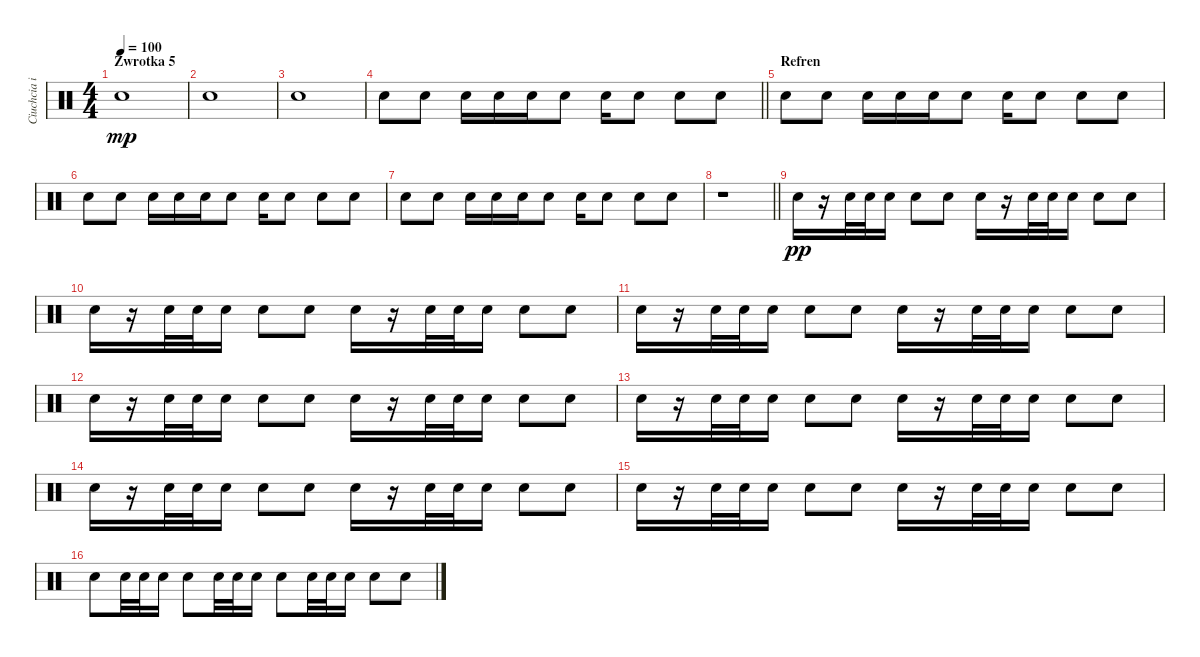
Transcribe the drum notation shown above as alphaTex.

\track ("Ciuchcia i Werbel" "Ciuchcia i") {instrument percussion}
\staff {score}
\articulation defaults
\ts (4 4)
\section ("" "Zwrotka 5")
\tempo 100
\clef neutral
\ks c "Snare (hit) 2".1{dy mp}
|
"Snare (hit) 2".1 |
"Snare (hit) 2".1 |
\barLineRight lightlight "Snare (hit) 2".8 "Snare (hit) 2".8 "Snare (hit) 2".16 "Snare (hit) 2".16 "Snare (hit) 2".16 "Snare (hit) 2".8 "Snare (hit) 2".16 "Snare (hit) 2".8 "Snare (hit) 2".8 "Snare (hit) 2".8
|
\section ("" "Refren")
"Snare (hit) 2".8 "Snare (hit) 2".8 "Snare (hit) 2".16 "Snare (hit) 2".16 "Snare (hit) 2".16 "Snare (hit) 2".8 "Snare (hit) 2".16 "Snare (hit) 2".8 "Snare (hit) 2".8 "Snare (hit) 2".8 |
"Snare (hit) 2".8 "Snare (hit) 2".8 "Snare (hit) 2".16 "Snare (hit) 2".16 "Snare (hit) 2".16 "Snare (hit) 2".8 "Snare (hit) 2".16 "Snare (hit) 2".8 "Snare (hit) 2".8 "Snare (hit) 2".8 |
"Snare (hit) 2".8 "Snare (hit) 2".8 "Snare (hit) 2".16 "Snare (hit) 2".16 "Snare (hit) 2".16 "Snare (hit) 2".8 "Snare (hit) 2".16 "Snare (hit) 2".8 "Snare (hit) 2".8 "Snare (hit) 2".8 |
\barLineRight lightlight
r.1 |
"Snare (hit) 2".16{dy pp} r.16 "Snare (hit) 2".32 "Snare (hit) 2".32 "Snare (hit) 2".16 "Snare (hit) 2".8 "Snare (hit) 2".8 "Snare (hit) 2".16 r.16 "Snare (hit) 2".32 "Snare (hit) 2".32 "Snare (hit) 2".16 "Snare (hit) 2".8 "Snare (hit) 2".8 |
"Snare (hit) 2".16 r.16 "Snare (hit) 2".32 "Snare (hit) 2".32 "Snare (hit) 2".16 "Snare (hit) 2".8 "Snare (hit) 2".8 "Snare (hit) 2".16 r.16 "Snare (hit) 2".32 "Snare (hit) 2".32 "Snare (hit) 2".16 "Snare (hit) 2".8 "Snare (hit) 2".8 |
"Snare (hit) 2".16 r.16 "Snare (hit) 2".32 "Snare (hit) 2".32 "Snare (hit) 2".16 "Snare (hit) 2".8 "Snare (hit) 2".8 "Snare (hit) 2".16 r.16 "Snare (hit) 2".32 "Snare (hit) 2".32 "Snare (hit) 2".16 "Snare (hit) 2".8 "Snare (hit) 2".8 |
"Snare (hit) 2".16 r.16 "Snare (hit) 2".32 "Snare (hit) 2".32 "Snare (hit) 2".16 "Snare (hit) 2".8 "Snare (hit) 2".8 "Snare (hit) 2".16 r.16 "Snare (hit) 2".32 "Snare (hit) 2".32 "Snare (hit) 2".16 "Snare (hit) 2".8 "Snare (hit) 2".8 |
"Snare (hit) 2".16 r.16 "Snare (hit) 2".32 "Snare (hit) 2".32 "Snare (hit) 2".16 "Snare (hit) 2".8 "Snare (hit) 2".8 "Snare (hit) 2".16 r.16 "Snare (hit) 2".32 "Snare (hit) 2".32 "Snare (hit) 2".16 "Snare (hit) 2".8 "Snare (hit) 2".8 |
"Snare (hit) 2".16 r.16 "Snare (hit) 2".32 "Snare (hit) 2".32 "Snare (hit) 2".16 "Snare (hit) 2".8 "Snare (hit) 2".8 "Snare (hit) 2".16 r.16 "Snare (hit) 2".32 "Snare (hit) 2".32 "Snare (hit) 2".16 "Snare (hit) 2".8 "Snare (hit) 2".8 |
"Snare (hit) 2".16 r.16 "Snare (hit) 2".32 "Snare (hit) 2".32 "Snare (hit) 2".16 "Snare (hit) 2".8 "Snare (hit) 2".8 "Snare (hit) 2".16 r.16 "Snare (hit) 2".32 "Snare (hit) 2".32 "Snare (hit) 2".16 "Snare (hit) 2".8 "Snare (hit) 2".8 |
"Snare (hit) 2".8 "Snare (hit) 2".32 "Snare (hit) 2".32 "Snare (hit) 2".16 "Snare (hit) 2".8 "Snare (hit) 2".32 "Snare (hit) 2".32 "Snare (hit) 2".16 "Snare (hit) 2".8 "Snare (hit) 2".32 "Snare (hit) 2".32 "Snare (hit) 2".16 "Snare (hit) 2".8 "Snare (hit) 2".8
